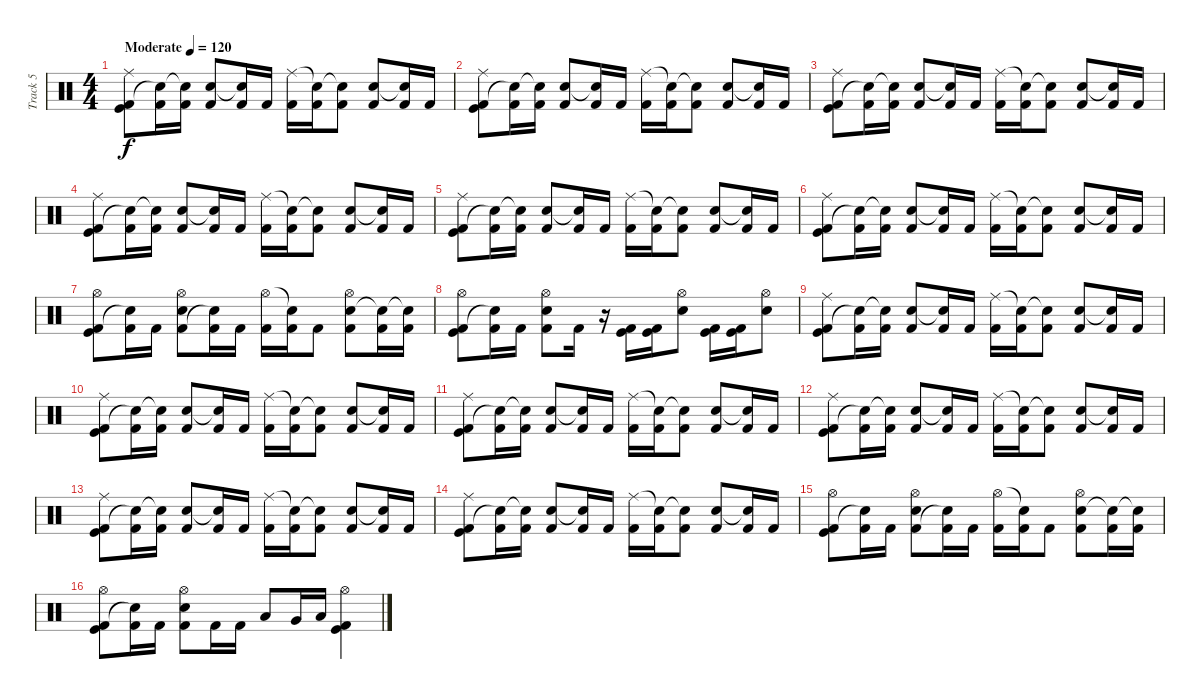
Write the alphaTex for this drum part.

\track ("Track 5" "Track 5") {instrument percussion}
\staff {score}
\articulation defaults
\ts (4 4)
\tempo (120 "Moderate")
\clef neutral
\ks c
("Kick (hit)" "Kick (hit) 2" "Ride (middle)").8{dy f} ("Kick (hit) 2" "Snare (hit)"{t}).16 ("Kick (hit) 2" "Snare (hit)"{t}).16 ("Kick (hit) 2" "Snare (hit) 2").8 ("Kick (hit) 2" "Snare (hit)"{t}).16 "Kick (hit) 2".16 ("Kick (hit) 2" "Ride (middle)").16 ("Kick (hit) 2" "Snare (hit)"{t}).16 ("Kick (hit) 2" "Snare (hit)"{t}).8 ("Kick (hit) 2" "Snare (hit) 2").8 ("Kick (hit) 2" "Snare (hit)"{t}).16 "Kick (hit) 2".16 |
("Kick (hit)" "Kick (hit) 2" "Ride (middle)").8 ("Kick (hit) 2" "Snare (hit)"{t}).16 ("Kick (hit) 2" "Snare (hit)"{t}).16 ("Kick (hit) 2" "Snare (hit) 2").8 ("Kick (hit) 2" "Snare (hit)"{t}).16 "Kick (hit) 2".16 ("Kick (hit) 2" "Ride (middle)").16 ("Kick (hit) 2" "Snare (hit)"{t}).16 ("Kick (hit) 2" "Snare (hit)"{t}).8 ("Kick (hit) 2" "Snare (hit) 2").8 ("Kick (hit) 2" "Snare (hit)"{t}).16 "Kick (hit) 2".16 |
("Kick (hit)" "Kick (hit) 2" "Ride (middle)").8 ("Kick (hit) 2" "Snare (hit)"{t}).16 ("Kick (hit) 2" "Snare (hit)"{t}).16 ("Kick (hit) 2" "Snare (hit) 2").8 ("Kick (hit) 2" "Snare (hit)"{t}).16 "Kick (hit) 2".16 ("Kick (hit) 2" "Ride (middle)").16 ("Kick (hit) 2" "Snare (hit)"{t}).16 ("Kick (hit) 2" "Snare (hit)"{t}).8 ("Kick (hit) 2" "Snare (hit) 2").8 ("Kick (hit) 2" "Snare (hit)"{t}).16 "Kick (hit) 2".16 |
("Kick (hit)" "Kick (hit) 2" "Ride (middle)").8 ("Kick (hit) 2" "Snare (hit)"{t}).16 ("Kick (hit) 2" "Snare (hit)"{t}).16 ("Kick (hit) 2" "Snare (hit) 2").8 ("Kick (hit) 2" "Snare (hit)"{t}).16 "Kick (hit) 2".16 ("Kick (hit) 2" "Ride (middle)").16 ("Kick (hit) 2" "Snare (hit)"{t}).16 ("Kick (hit) 2" "Snare (hit)"{t}).8 ("Kick (hit) 2" "Snare (hit) 2").8 ("Kick (hit) 2" "Snare (hit)"{t}).16 "Kick (hit) 2".16 |
("Kick (hit)" "Kick (hit) 2" "Ride (middle)").8 ("Kick (hit) 2" "Snare (hit)"{t}).16 ("Kick (hit) 2" "Snare (hit)"{t}).16 ("Kick (hit) 2" "Snare (hit) 2").8 ("Kick (hit) 2" "Snare (hit)"{t}).16 "Kick (hit) 2".16 ("Kick (hit) 2" "Ride (middle)").16 ("Kick (hit) 2" "Snare (hit)"{t}).16 ("Kick (hit) 2" "Snare (hit)"{t}).8 ("Kick (hit) 2" "Snare (hit) 2").8 ("Kick (hit) 2" "Snare (hit)"{t}).16 "Kick (hit) 2".16 |
("Kick (hit)" "Kick (hit) 2" "Ride (middle)").8 ("Kick (hit) 2" "Snare (hit)"{t}).16 ("Kick (hit) 2" "Snare (hit)"{t}).16 ("Kick (hit) 2" "Snare (hit) 2").8 ("Kick (hit) 2" "Snare (hit)"{t}).16 "Kick (hit) 2".16 ("Kick (hit) 2" "Ride (middle)").16 ("Kick (hit) 2" "Snare (hit)"{t}).16 ("Kick (hit) 2" "Snare (hit)"{t}).8 ("Kick (hit) 2" "Snare (hit) 2").8 ("Kick (hit) 2" "Snare (hit)"{t}).16 "Kick (hit) 2".16 |
("Kick (hit)" "Kick (hit) 2" "Hi-Hat (open)").8 ("Kick (hit) 2" "Snare (hit)"{t}).16 "Kick (hit) 2".16 ("Snare (hit) 2" "Kick (hit) 2" "Hi-Hat (open)").8 ("Kick (hit) 2" "Snare (hit)"{t}).16 "Kick (hit) 2".16 ("Kick (hit) 2" "Hi-Hat (open)").16 ("Kick (hit) 2" "Snare (hit)"{t}).16 "Kick (hit) 2".8 ("Kick (hit) 2" "Snare (hit) 2" "Hi-Hat (open)").8 ("Kick (hit) 2" "Snare (hit)"{t}).16 ("Kick (hit) 2" "Snare (hit)"{t}).16 |
("Kick (hit)" "Kick (hit) 2" "Hi-Hat (open)").8 ("Kick (hit) 2" "Snare (hit)"{t}).16 "Kick (hit) 2".16 ("Snare (hit) 2" "Kick (hit) 2" "Hi-Hat (open)").8 "Kick (hit) 2".16 r.16 ("Kick (hit) 2" "Kick (hit)").16 ("Kick (hit) 2" "Kick (hit)").16 ("Snare (hit) 2" "Hi-Hat (open)").8 ("Kick (hit) 2" "Kick (hit)").16 ("Kick (hit) 2" "Kick (hit)").16 ("Snare (hit) 2" "Hi-Hat (open)").8 |
("Kick (hit)" "Kick (hit) 2" "Ride (middle)").8 ("Kick (hit) 2" "Snare (hit)"{t}).16 ("Kick (hit) 2" "Snare (hit)"{t}).16 ("Kick (hit) 2" "Snare (hit) 2").8 ("Kick (hit) 2" "Snare (hit)"{t}).16 "Kick (hit) 2".16 ("Kick (hit) 2" "Ride (middle)").16 ("Kick (hit) 2" "Snare (hit)"{t}).16 ("Kick (hit) 2" "Snare (hit)"{t}).8 ("Kick (hit) 2" "Snare (hit) 2").8 ("Kick (hit) 2" "Snare (hit)"{t}).16 "Kick (hit) 2".16 |
("Kick (hit)" "Kick (hit) 2" "Ride (middle)").8 ("Kick (hit) 2" "Snare (hit)"{t}).16 ("Kick (hit) 2" "Snare (hit)"{t}).16 ("Kick (hit) 2" "Snare (hit) 2").8 ("Kick (hit) 2" "Snare (hit)"{t}).16 "Kick (hit) 2".16 ("Kick (hit) 2" "Ride (middle)").16 ("Kick (hit) 2" "Snare (hit)"{t}).16 ("Kick (hit) 2" "Snare (hit)"{t}).8 ("Kick (hit) 2" "Snare (hit) 2").8 ("Kick (hit) 2" "Snare (hit)"{t}).16 "Kick (hit) 2".16 |
("Kick (hit)" "Kick (hit) 2" "Ride (middle)").8 ("Kick (hit) 2" "Snare (hit)"{t}).16 ("Kick (hit) 2" "Snare (hit)"{t}).16 ("Kick (hit) 2" "Snare (hit) 2").8 ("Kick (hit) 2" "Snare (hit)"{t}).16 "Kick (hit) 2".16 ("Kick (hit) 2" "Ride (middle)").16 ("Kick (hit) 2" "Snare (hit)"{t}).16 ("Kick (hit) 2" "Snare (hit)"{t}).8 ("Kick (hit) 2" "Snare (hit) 2").8 ("Kick (hit) 2" "Snare (hit)"{t}).16 "Kick (hit) 2".16 |
("Kick (hit)" "Kick (hit) 2" "Ride (middle)").8 ("Kick (hit) 2" "Snare (hit)"{t}).16 ("Kick (hit) 2" "Snare (hit)"{t}).16 ("Kick (hit) 2" "Snare (hit) 2").8 ("Kick (hit) 2" "Snare (hit)"{t}).16 "Kick (hit) 2".16 ("Kick (hit) 2" "Ride (middle)").16 ("Kick (hit) 2" "Snare (hit)"{t}).16 ("Kick (hit) 2" "Snare (hit)"{t}).8 ("Kick (hit) 2" "Snare (hit) 2").8 ("Kick (hit) 2" "Snare (hit)"{t}).16 "Kick (hit) 2".16 |
("Kick (hit)" "Kick (hit) 2" "Ride (middle)").8 ("Kick (hit) 2" "Snare (hit)"{t}).16 ("Kick (hit) 2" "Snare (hit)"{t}).16 ("Kick (hit) 2" "Snare (hit) 2").8 ("Kick (hit) 2" "Snare (hit)"{t}).16 "Kick (hit) 2".16 ("Kick (hit) 2" "Ride (middle)").16 ("Kick (hit) 2" "Snare (hit)"{t}).16 ("Kick (hit) 2" "Snare (hit)"{t}).8 ("Kick (hit) 2" "Snare (hit) 2").8 ("Kick (hit) 2" "Snare (hit)"{t}).16 "Kick (hit) 2".16 |
("Kick (hit)" "Kick (hit) 2" "Ride (middle)").8 ("Kick (hit) 2" "Snare (hit)"{t}).16 ("Kick (hit) 2" "Snare (hit)"{t}).16 ("Kick (hit) 2" "Snare (hit) 2").8 ("Kick (hit) 2" "Snare (hit)"{t}).16 "Kick (hit) 2".16 ("Kick (hit) 2" "Ride (middle)").16 ("Kick (hit) 2" "Snare (hit)"{t}).16 ("Kick (hit) 2" "Snare (hit)"{t}).8 ("Kick (hit) 2" "Snare (hit) 2").8 ("Kick (hit) 2" "Snare (hit)"{t}).16 "Kick (hit) 2".16 |
("Kick (hit)" "Kick (hit) 2" "Hi-Hat (open)").8 ("Kick (hit) 2" "Snare (hit)"{t}).16 "Kick (hit) 2".16 ("Snare (hit) 2" "Kick (hit) 2" "Hi-Hat (open)").8 ("Kick (hit) 2" "Snare (hit)"{t}).16 "Kick (hit) 2".16 ("Kick (hit) 2" "Hi-Hat (open)").16 ("Kick (hit) 2" "Snare (hit)"{t}).16 "Kick (hit) 2".8 ("Kick (hit) 2" "Snare (hit) 2" "Hi-Hat (open)").8 ("Kick (hit) 2" "Snare (hit)"{t}).16 ("Kick (hit) 2" "Snare (hit)"{t}).16 |
("Kick (hit)" "Kick (hit) 2" "Hi-Hat (open)").8 ("Kick (hit) 2" "Snare (hit)"{t}).16 "Kick (hit) 2".16 ("Snare (hit) 2" "Kick (hit) 2" "Hi-Hat (open)").8 "Kick (hit) 2".16 "Kick (hit) 2".16 "Low Floor Tom (hit)".8 "Very Low Tom (hit)".16 "Low Tom (hit)".16 ("Kick (hit) 2" "Kick (hit)" "Hi-Hat (open)").4
